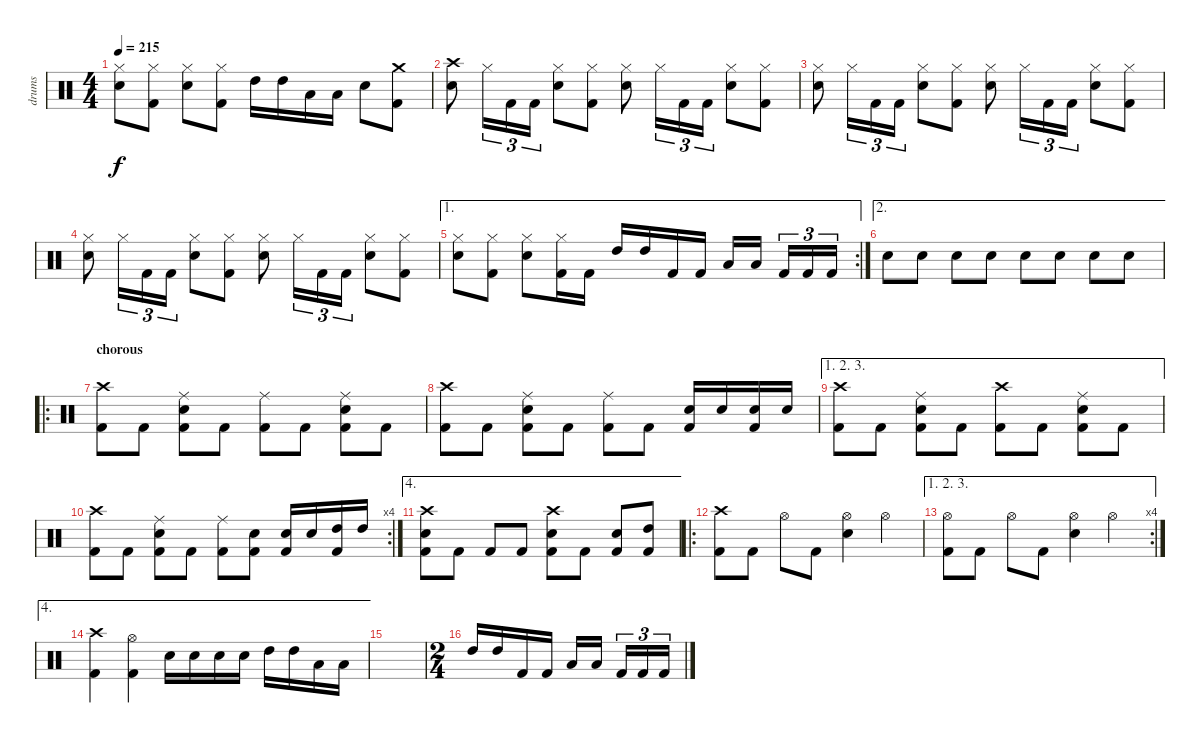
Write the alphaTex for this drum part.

\track ("drums" "drums") {instrument percussion}
\staff {score}
\articulation defaults
\ts (4 4)
\tempo 215
\clef neutral
\ks c
("Hi-Hat (closed)" "Electric Snare (hit)").8{dy f} ("Hi-Hat (closed)" "Kick (hit) 2").8 ("Hi-Hat (closed)" "Electric Snare (hit)").8 ("Hi-Hat (closed)" "Kick (hit) 2").8 "High Tom (hit)".16 "High Tom (hit)".16 "Low Tom (hit)".16 "Low Tom (hit)".16 "Electric Snare (hit)".8 ("Crash medium (hit)" "Kick (hit) 2").8 |
("Crash high (hit)" "Electric Snare (hit)").8 "Hi-Hat (closed)".16{tu (3 2)} "Kick (hit) 2".16{tu (3 2)} "Kick (hit) 2".16{tu (3 2)} ("Hi-Hat (closed)" "Electric Snare (hit)").8 ("Hi-Hat (closed)" "Kick (hit) 2").8 ("Hi-Hat (closed)" "Electric Snare (hit)").8 "Hi-Hat (closed)".16{tu (3 2)} "Kick (hit) 2".16{tu (3 2)} "Kick (hit) 2".16{tu (3 2)} ("Hi-Hat (closed)" "Electric Snare (hit)").8 ("Hi-Hat (closed)" "Kick (hit) 2").8 |
("Hi-Hat (closed)" "Electric Snare (hit)").8 "Hi-Hat (closed)".16{tu (3 2)} "Kick (hit) 2".16{tu (3 2)} "Kick (hit) 2".16{tu (3 2)} ("Hi-Hat (closed)" "Electric Snare (hit)").8 ("Hi-Hat (closed)" "Kick (hit) 2").8 ("Hi-Hat (closed)" "Electric Snare (hit)").8 "Hi-Hat (closed)".16{tu (3 2)} "Kick (hit) 2".16{tu (3 2)} "Kick (hit) 2".16{tu (3 2)} ("Hi-Hat (closed)" "Electric Snare (hit)").8 ("Hi-Hat (closed)" "Kick (hit) 2").8 |
("Hi-Hat (closed)" "Electric Snare (hit)").8 "Hi-Hat (closed)".16{tu (3 2)} "Kick (hit) 2".16{tu (3 2)} "Kick (hit) 2".16{tu (3 2)} ("Hi-Hat (closed)" "Electric Snare (hit)").8 ("Hi-Hat (closed)" "Kick (hit) 2").8 ("Hi-Hat (closed)" "Electric Snare (hit)").8 "Hi-Hat (closed)".16{tu (3 2)} "Kick (hit) 2".16{tu (3 2)} "Kick (hit) 2".16{tu (3 2)} ("Hi-Hat (closed)" "Electric Snare (hit)").8 ("Hi-Hat (closed)" "Kick (hit) 2").8 |
\ae 1
\rc 2
("Hi-Hat (closed)" "Electric Snare (hit)").8 ("Hi-Hat (closed)" "Kick (hit) 2").8 ("Hi-Hat (closed)" "Electric Snare (hit)").8 ("Hi-Hat (closed)" "Kick (hit) 2").16 "Kick (hit) 2".16 "High Tom (hit)".16 "High Tom (hit)".16 "Kick (hit) 2".16 "Kick (hit) 2".16 "Low Tom (hit)".16 "Low Tom (hit)".16 "Kick (hit) 2".16{tu (3 2)} "Kick (hit) 2".16{tu (3 2)} "Kick (hit) 2".16{tu (3 2)} |
\ae 2 "Electric Snare (hit)".8 "Electric Snare (hit)".8 "Electric Snare (hit)".8 "Electric Snare (hit)".8 "Electric Snare (hit)".8 "Electric Snare (hit)".8 "Electric Snare (hit)".8 "Electric Snare (hit)".8
|
\ro
\section ("" "chorous")
("Crash high (hit)" "Kick (hit) 2").8 "Kick (hit) 2".8 ("Ride (middle)" "Electric Snare (hit)" "Kick (hit) 2").8 "Kick (hit) 2".8 ("Ride (middle)" "Kick (hit) 2").8 "Kick (hit) 2".8 ("Ride (middle)" "Electric Snare (hit)" "Kick (hit) 2").8 "Kick (hit) 2".8 |
("Crash high (hit)" "Kick (hit) 2").8 "Kick (hit) 2".8 ("Ride (middle)" "Electric Snare (hit)" "Kick (hit) 2").8 "Kick (hit) 2".8 ("Ride (middle)" "Kick (hit) 2").8 "Kick (hit) 2".8 ("Electric Snare (hit)" "Kick (hit) 2").16 "Electric Snare (hit)".16 ("Electric Snare (hit)" "Kick (hit) 2").16 "Electric Snare (hit)".16 |
\ae (1 2 3)
("Crash high (hit)" "Kick (hit) 2").8 "Kick (hit) 2".8 ("Ride (middle)" "Electric Snare (hit)" "Kick (hit) 2").8 "Kick (hit) 2".8 ("Crash high (hit)" "Kick (hit) 2").8 "Kick (hit) 2".8 ("Ride (middle)" "Electric Snare (hit)" "Kick (hit) 2").8 "Kick (hit) 2".8 |
\rc 4
("Crash high (hit)" "Kick (hit) 2").8 "Kick (hit) 2".8 ("Ride (middle)" "Electric Snare (hit)" "Kick (hit) 2").8 "Kick (hit) 2".8 ("Ride (middle)" "Kick (hit) 2").8 ("Electric Snare (hit)" "Kick (hit) 2").8 ("Electric Snare (hit)" "Kick (hit) 2").16 "Electric Snare (hit)".16 ("High Tom (hit)" "Kick (hit) 2").16 "High Tom (hit)".16 |
\ae 4
("Crash high (hit)" "Electric Snare (hit)" "Kick (hit) 2").8 "Kick (hit) 2".8 "Kick (hit) 2".8 "Kick (hit) 2".8 ("Crash high (hit)" "Electric Snare (hit)" "Kick (hit) 2").8 "Kick (hit) 2".8 ("Electric Snare (hit)" "Kick (hit) 2").8 ("High Tom (hit)" "Kick (hit) 2").8 |
\ro
("Crash high (hit)" "Kick (hit) 2").8 "Kick (hit) 2".8 "Hi-Hat (open)".8 "Kick (hit) 2".8 ("Hi-Hat (open)" "Electric Snare (hit)").4 "Hi-Hat (open)".4 |
\ae (1 2 3)
\rc 4
("Hi-Hat (open)" "Kick (hit) 2").8 "Kick (hit) 2".8 "Hi-Hat (open)".8 "Kick (hit) 2".8 ("Hi-Hat (open)" "Electric Snare (hit)").4 "Hi-Hat (open)".4 |
\ae 4
("Crash high (hit)" "Kick (hit) 2").4 ("Hi-Hat (open)" "Kick (hit) 2").4 "Electric Snare (hit)".16 "Electric Snare (hit)".16 "Electric Snare (hit)".16 "Electric Snare (hit)".16 "High Tom (hit)".16 "High Tom (hit)".16 "Low Tom (hit)".16 "Low Tom (hit)".16 |
|
\ts (2 4)
"High Tom (hit)".16 "High Tom (hit)".16 "Kick (hit) 2".16 "Kick (hit) 2".16 "Low Tom (hit)".16 "Low Tom (hit)".16 "Kick (hit) 2".16{tu (3 2)} "Kick (hit) 2".16{tu (3 2)} "Kick (hit) 2".16{tu (3 2)}
